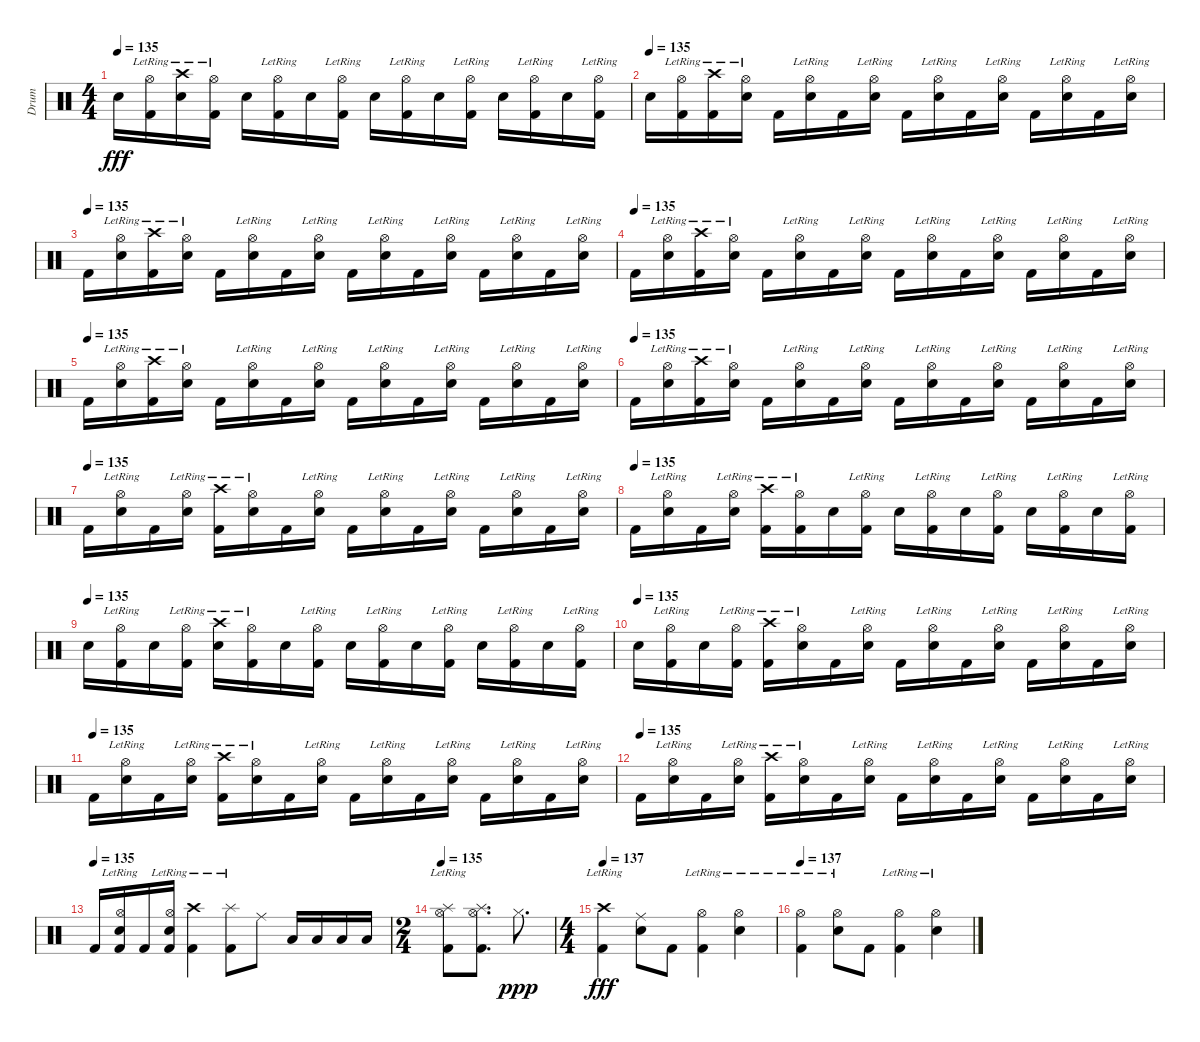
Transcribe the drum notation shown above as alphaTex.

\track ("Drum" "Drum") {instrument percussion}
\staff {score}
\articulation defaults
\ts (4 4)
\tempo 135
\clef neutral
\ks c "Electric Snare (hit)".16{dy fff}
("Hi-Hat (open)"{lr} "Kick (hit) 2").16 ("Crash high (hit)"{lr} "Electric Snare (hit)").16 ("Hi-Hat (open)"{lr} "Kick (hit) 2").16 "Electric Snare (hit)".16 ("Hi-Hat (open)"{lr} "Kick (hit) 2").16 "Electric Snare (hit)".16 ("Hi-Hat (open)"{lr} "Kick (hit) 2").16 "Electric Snare (hit)".16 ("Hi-Hat (open)"{lr} "Kick (hit) 2").16 "Electric Snare (hit)".16 ("Hi-Hat (open)"{lr} "Kick (hit) 2").16 "Electric Snare (hit)".16 ("Hi-Hat (open)"{lr} "Kick (hit) 2").16 "Electric Snare (hit)".16 ("Hi-Hat (open)"{lr} "Kick (hit) 2").16 |
\tempo (135)
"Electric Snare (hit)".16 ("Hi-Hat (open)"{lr} "Kick (hit) 2").16 ("Crash high (hit)"{lr} "Kick (hit) 2").16 ("Hi-Hat (open)"{lr} "Electric Snare (hit)").16 "Kick (hit) 2".16 ("Hi-Hat (open)"{lr} "Electric Snare (hit)").16 "Kick (hit) 2".16 ("Hi-Hat (open)"{lr} "Electric Snare (hit)").16 "Kick (hit) 2".16 ("Hi-Hat (open)"{lr} "Electric Snare (hit)").16 "Kick (hit) 2".16 ("Hi-Hat (open)"{lr} "Electric Snare (hit)").16 "Kick (hit) 2".16 ("Hi-Hat (open)"{lr} "Electric Snare (hit)").16 "Kick (hit) 2".16 ("Hi-Hat (open)"{lr} "Electric Snare (hit)").16 |
\tempo (135)
"Kick (hit) 2".16 ("Hi-Hat (open)"{lr} "Electric Snare (hit)").16 ("Crash high (hit)"{lr} "Kick (hit) 2").16 ("Hi-Hat (open)"{lr} "Electric Snare (hit)").16 "Kick (hit) 2".16 ("Hi-Hat (open)"{lr} "Electric Snare (hit)").16 "Kick (hit) 2".16 ("Hi-Hat (open)"{lr} "Electric Snare (hit)").16 "Kick (hit) 2".16 ("Hi-Hat (open)"{lr} "Electric Snare (hit)").16 "Kick (hit) 2".16 ("Hi-Hat (open)"{lr} "Electric Snare (hit)").16 "Kick (hit) 2".16 ("Hi-Hat (open)"{lr} "Electric Snare (hit)").16 "Kick (hit) 2".16 ("Hi-Hat (open)"{lr} "Electric Snare (hit)").16 |
\tempo (135)
"Kick (hit) 2".16 ("Hi-Hat (open)"{lr} "Electric Snare (hit)").16 ("Crash high (hit)"{lr} "Kick (hit) 2").16 ("Hi-Hat (open)"{lr} "Electric Snare (hit)").16 "Kick (hit) 2".16 ("Hi-Hat (open)"{lr} "Electric Snare (hit)").16 "Kick (hit) 2".16 ("Hi-Hat (open)"{lr} "Electric Snare (hit)").16 "Kick (hit) 2".16 ("Hi-Hat (open)"{lr} "Electric Snare (hit)").16 "Kick (hit) 2".16 ("Hi-Hat (open)"{lr} "Electric Snare (hit)").16 "Kick (hit) 2".16 ("Hi-Hat (open)"{lr} "Electric Snare (hit)").16 "Kick (hit) 2".16 ("Hi-Hat (open)"{lr} "Electric Snare (hit)").16 |
\tempo (135)
"Kick (hit) 2".16 ("Hi-Hat (open)"{lr} "Electric Snare (hit)").16 ("Crash high (hit)"{lr} "Kick (hit) 2").16 ("Hi-Hat (open)"{lr} "Electric Snare (hit)").16 "Kick (hit) 2".16 ("Hi-Hat (open)"{lr} "Electric Snare (hit)").16 "Kick (hit) 2".16 ("Hi-Hat (open)"{lr} "Electric Snare (hit)").16 "Kick (hit) 2".16 ("Hi-Hat (open)"{lr} "Electric Snare (hit)").16 "Kick (hit) 2".16 ("Hi-Hat (open)"{lr} "Electric Snare (hit)").16 "Kick (hit) 2".16 ("Hi-Hat (open)"{lr} "Electric Snare (hit)").16 "Kick (hit) 2".16 ("Hi-Hat (open)"{lr} "Electric Snare (hit)").16 |
\tempo (135)
"Kick (hit) 2".16 ("Hi-Hat (open)"{lr} "Electric Snare (hit)").16 ("Crash high (hit)"{lr} "Kick (hit) 2").16 ("Hi-Hat (open)"{lr} "Electric Snare (hit)").16 "Kick (hit) 2".16 ("Hi-Hat (open)"{lr} "Electric Snare (hit)").16 "Kick (hit) 2".16 ("Hi-Hat (open)"{lr} "Electric Snare (hit)").16 "Kick (hit) 2".16 ("Hi-Hat (open)"{lr} "Electric Snare (hit)").16 "Kick (hit) 2".16 ("Hi-Hat (open)"{lr} "Electric Snare (hit)").16 "Kick (hit) 2".16 ("Hi-Hat (open)"{lr} "Electric Snare (hit)").16 "Kick (hit) 2".16 ("Hi-Hat (open)"{lr} "Electric Snare (hit)").16 |
\tempo (135)
"Kick (hit) 2".16 ("Hi-Hat (open)"{lr} "Electric Snare (hit)").16 "Kick (hit) 2".16 ("Hi-Hat (open)"{lr} "Electric Snare (hit)").16 ("Crash high (hit)"{lr} "Kick (hit) 2").16 ("Hi-Hat (open)"{lr} "Electric Snare (hit)").16 "Kick (hit) 2".16 ("Hi-Hat (open)"{lr} "Electric Snare (hit)").16 "Kick (hit) 2".16 ("Hi-Hat (open)"{lr} "Electric Snare (hit)").16 "Kick (hit) 2".16 ("Hi-Hat (open)"{lr} "Electric Snare (hit)").16 "Kick (hit) 2".16 ("Hi-Hat (open)"{lr} "Electric Snare (hit)").16 "Kick (hit) 2".16 ("Hi-Hat (open)"{lr} "Electric Snare (hit)").16 |
\tempo (135)
"Kick (hit) 2".16 ("Hi-Hat (open)"{lr} "Electric Snare (hit)").16 "Kick (hit) 2".16 ("Hi-Hat (open)"{lr} "Electric Snare (hit)").16 ("Crash high (hit)"{lr} "Kick (hit) 2").16 ("Hi-Hat (open)"{lr} "Kick (hit) 2").16 "Electric Snare (hit)".16 ("Hi-Hat (open)"{lr} "Kick (hit) 2").16 "Electric Snare (hit)".16 ("Hi-Hat (open)"{lr} "Kick (hit) 2").16 "Electric Snare (hit)".16 ("Hi-Hat (open)"{lr} "Kick (hit) 2").16 "Electric Snare (hit)".16 ("Hi-Hat (open)"{lr} "Kick (hit) 2").16 "Electric Snare (hit)".16 ("Hi-Hat (open)"{lr} "Kick (hit) 2").16 |
\tempo (135)
"Electric Snare (hit)".16 ("Hi-Hat (open)"{lr} "Kick (hit) 2").16 "Electric Snare (hit)".16 ("Hi-Hat (open)"{lr} "Kick (hit) 2").16 ("Crash high (hit)"{lr} "Electric Snare (hit)").16 ("Hi-Hat (open)"{lr} "Kick (hit) 2").16 "Electric Snare (hit)".16 ("Hi-Hat (open)"{lr} "Kick (hit) 2").16 "Electric Snare (hit)".16 ("Hi-Hat (open)"{lr} "Kick (hit) 2").16 "Electric Snare (hit)".16 ("Hi-Hat (open)"{lr} "Kick (hit) 2").16 "Electric Snare (hit)".16 ("Hi-Hat (open)"{lr} "Kick (hit) 2").16 "Electric Snare (hit)".16 ("Hi-Hat (open)"{lr} "Kick (hit) 2").16 |
\tempo (135)
"Electric Snare (hit)".16 ("Hi-Hat (open)"{lr} "Kick (hit) 2").16 "Electric Snare (hit)".16 ("Hi-Hat (open)"{lr} "Kick (hit) 2").16 ("Crash high (hit)"{lr} "Kick (hit) 2").16 ("Hi-Hat (open)"{lr} "Electric Snare (hit)").16 "Kick (hit) 2".16 ("Hi-Hat (open)"{lr} "Electric Snare (hit)").16 "Kick (hit) 2".16 ("Hi-Hat (open)"{lr} "Electric Snare (hit)").16 "Kick (hit) 2".16 ("Hi-Hat (open)"{lr} "Electric Snare (hit)").16 "Kick (hit) 2".16 ("Hi-Hat (open)"{lr} "Electric Snare (hit)").16 "Kick (hit) 2".16 ("Hi-Hat (open)"{lr} "Electric Snare (hit)").16 |
\tempo (135)
"Kick (hit) 2".16 ("Hi-Hat (open)"{lr} "Electric Snare (hit)").16 "Kick (hit) 2".16 ("Hi-Hat (open)"{lr} "Electric Snare (hit)").16 ("Crash high (hit)"{lr} "Kick (hit) 2").16 ("Hi-Hat (open)"{lr} "Electric Snare (hit)").16 "Kick (hit) 2".16 ("Hi-Hat (open)"{lr} "Electric Snare (hit)").16 "Kick (hit) 2".16 ("Hi-Hat (open)"{lr} "Electric Snare (hit)").16 "Kick (hit) 2".16 ("Hi-Hat (open)"{lr} "Electric Snare (hit)").16 "Kick (hit) 2".16 ("Hi-Hat (open)"{lr} "Electric Snare (hit)").16 "Kick (hit) 2".16 ("Hi-Hat (open)"{lr} "Electric Snare (hit)").16 |
\tempo (135)
"Kick (hit) 2".16 ("Hi-Hat (open)"{lr} "Electric Snare (hit)").16 "Kick (hit) 2".16 ("Hi-Hat (open)"{lr} "Electric Snare (hit)").16 ("Crash high (hit)"{lr} "Kick (hit) 2").16 ("Hi-Hat (open)"{lr} "Electric Snare (hit)").16 "Kick (hit) 2".16 ("Hi-Hat (open)"{lr} "Electric Snare (hit)").16 "Kick (hit) 2".16 ("Hi-Hat (open)"{lr} "Electric Snare (hit)").16 "Kick (hit) 2".16 ("Hi-Hat (open)"{lr} "Electric Snare (hit)").16 "Kick (hit) 2".16 ("Hi-Hat (open)"{lr} "Electric Snare (hit)").16 "Kick (hit) 2".16 ("Hi-Hat (open)"{lr} "Electric Snare (hit)").16 |
\tempo (135)
"Kick (hit) 2".16 ("Hi-Hat (open)"{lr} "Electric Snare (hit)" "Kick (hit) 2").16 "Kick (hit) 2".16 ("Hi-Hat (open)"{lr} "Electric Snare (hit)" "Kick (hit) 2").16 ("Crash high (hit)"{lr} "Kick (hit) 2").4 ("Splash (hit)"{lr} "Kick (hit) 2").8 "Ride (middle)".8 "Low Tom (hit)".16 "Low Tom (hit)".16 "Low Tom (hit)".16 "Low Tom (hit)".16 |
\ts (2 4)
\tempo 135
("Splash (hit)" "Hi-Hat (open)"{lr} "Kick (hit) 2").8 ("Splash (hit)" "Hi-Hat (open)" "Kick (hit) 2").8{d} "Hi-Hat (closed)".8{d dy ppp} |
\ts (4 4)
\tempo 137
("Crash high (hit)"{lr} "Kick (hit) 2").4{dy fff} ("Ride (middle)" "Electric Snare (hit)").8 "Kick (hit) 2".8 ("Hi-Hat (open)"{lr} "Kick (hit) 2").4 ("Hi-Hat (open)"{lr} "Electric Snare (hit)").4 |
\tempo 137
("Hi-Hat (open)"{lr} "Kick (hit) 2").4 ("Hi-Hat (open)"{lr} "Electric Snare (hit)").8 "Kick (hit) 2".8 ("Hi-Hat (open)"{lr} "Kick (hit) 2").4 ("Hi-Hat (open)"{lr} "Electric Snare (hit)").4
